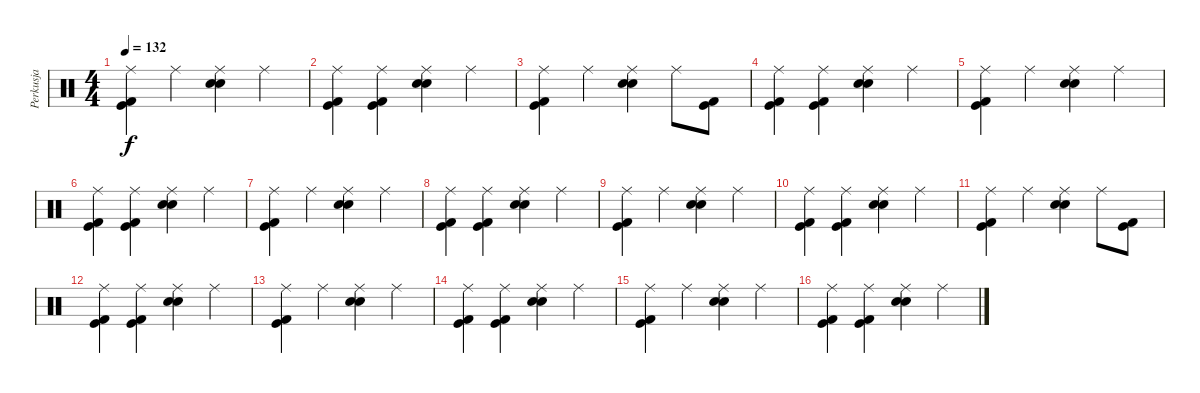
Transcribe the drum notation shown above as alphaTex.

\track ("Perkusja" "Perkusja") {instrument percussion}
\staff {score}
\articulation defaults
\ts (4 4)
\tempo 132
\clef neutral
\ks c
("Kick (hit)" "Kick (hit) 2" "Ride (middle)").4{dy f} "Ride (middle)".4 ("Snare (hit) 2" "Electric Snare (hit)" "Ride (middle)").4 "Ride (middle)".4 |
("Kick (hit)" "Kick (hit) 2" "Ride (middle)").4 ("Kick (hit)" "Kick (hit) 2" "Ride (middle)").4 ("Snare (hit) 2" "Electric Snare (hit)" "Ride (middle)").4 "Ride (middle)".4 |
("Kick (hit)" "Kick (hit) 2" "Ride (middle)").4 "Ride (middle)".4 ("Snare (hit) 2" "Electric Snare (hit)" "Ride (middle)").4 "Ride (middle)".8 ("Kick (hit)" "Kick (hit) 2").8 |
("Kick (hit)" "Kick (hit) 2" "Ride (middle)").4 ("Kick (hit)" "Kick (hit) 2" "Ride (middle)").4 ("Snare (hit) 2" "Electric Snare (hit)" "Ride (middle)").4 "Ride (middle)".4 |
("Kick (hit)" "Kick (hit) 2" "Ride (middle)").4 "Ride (middle)".4 ("Snare (hit) 2" "Electric Snare (hit)" "Ride (middle)").4 "Ride (middle)".4 |
("Kick (hit)" "Kick (hit) 2" "Ride (middle)").4 ("Kick (hit)" "Kick (hit) 2" "Ride (middle)").4 ("Snare (hit) 2" "Electric Snare (hit)" "Ride (middle)").4 "Ride (middle)".4 |
("Kick (hit)" "Kick (hit) 2" "Ride (middle)").4 "Ride (middle)".4 ("Snare (hit) 2" "Electric Snare (hit)" "Ride (middle)").4 "Ride (middle)".4 |
("Kick (hit)" "Kick (hit) 2" "Ride (middle)").4 ("Kick (hit)" "Kick (hit) 2" "Ride (middle)").4 ("Snare (hit) 2" "Electric Snare (hit)" "Ride (middle)").4 "Ride (middle)".4 |
("Kick (hit)" "Kick (hit) 2" "Ride (middle)").4 "Ride (middle)".4 ("Snare (hit) 2" "Electric Snare (hit)" "Ride (middle)").4 "Ride (middle)".4 |
("Kick (hit)" "Kick (hit) 2" "Ride (middle)").4 ("Kick (hit)" "Kick (hit) 2" "Ride (middle)").4 ("Snare (hit) 2" "Electric Snare (hit)" "Ride (middle)").4 "Ride (middle)".4 |
("Kick (hit)" "Kick (hit) 2" "Ride (middle)").4 "Ride (middle)".4 ("Snare (hit) 2" "Electric Snare (hit)" "Ride (middle)").4 "Ride (middle)".8 ("Kick (hit)" "Kick (hit) 2").8 |
("Kick (hit)" "Kick (hit) 2" "Ride (middle)").4 ("Kick (hit)" "Kick (hit) 2" "Ride (middle)").4 ("Snare (hit) 2" "Electric Snare (hit)" "Ride (middle)").4 "Ride (middle)".4 |
("Kick (hit)" "Kick (hit) 2" "Ride (middle)").4 "Ride (middle)".4 ("Snare (hit) 2" "Electric Snare (hit)" "Ride (middle)").4 "Ride (middle)".4 |
("Kick (hit)" "Kick (hit) 2" "Ride (middle)").4 ("Kick (hit)" "Kick (hit) 2" "Ride (middle)").4 ("Snare (hit) 2" "Electric Snare (hit)" "Ride (middle)").4 "Ride (middle)".4 |
("Kick (hit)" "Kick (hit) 2" "Ride (middle)").4 "Ride (middle)".4 ("Snare (hit) 2" "Electric Snare (hit)" "Ride (middle)").4 "Ride (middle)".4 |
("Kick (hit)" "Kick (hit) 2" "Ride (middle)").4 ("Kick (hit)" "Kick (hit) 2" "Ride (middle)").4 ("Snare (hit) 2" "Electric Snare (hit)" "Ride (middle)").4 "Ride (middle)".4
